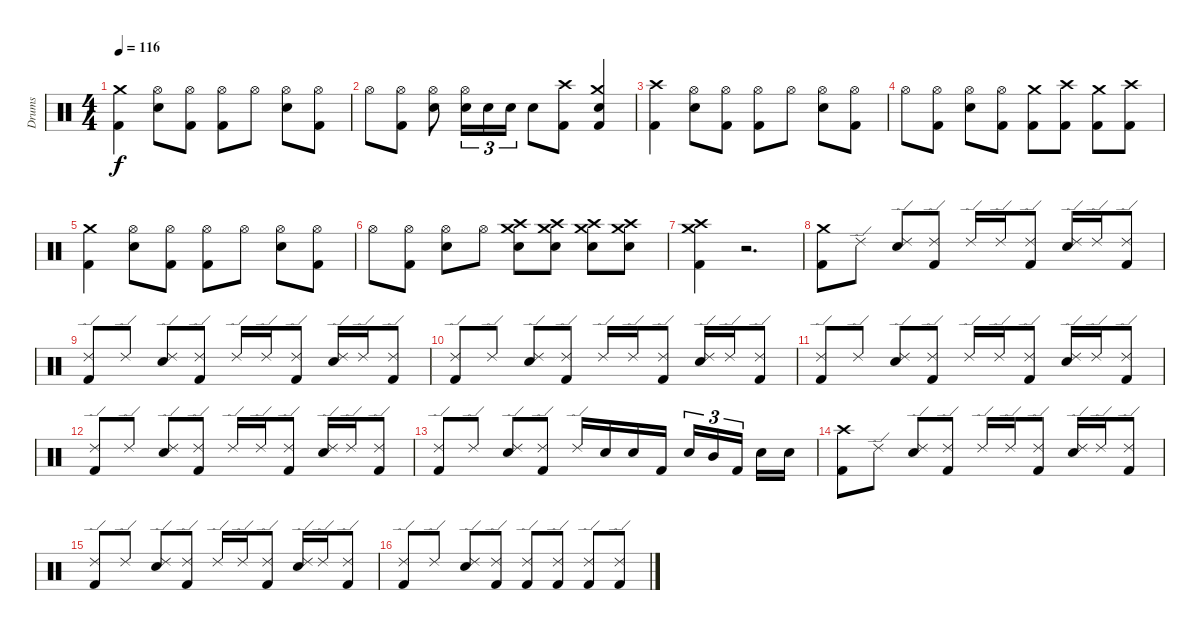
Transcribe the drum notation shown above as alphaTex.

\track ("Drums" "Drums") {instrument percussion}
\staff {score}
\articulation defaults
\ts (4 4)
\tempo 116
\clef neutral
\ks c
("Kick (hit) 2" "Crash medium (hit)").4{dy f} ("Electric Snare (hit)" "Hi-Hat (open)").8 ("Kick (hit) 2" "Hi-Hat (open)").8 ("Kick (hit) 2" "Hi-Hat (open)").8 "Hi-Hat (open)".8 ("Electric Snare (hit)" "Hi-Hat (open)").8 ("Kick (hit) 2" "Hi-Hat (open)").8 |
"Hi-Hat (open)".8 ("Kick (hit) 2" "Hi-Hat (open)").8 ("Electric Snare (hit)" "Hi-Hat (open)").8 ("Electric Snare (hit)" "Hi-Hat (open)").16{tu (3 2)} "Electric Snare (hit)".16{tu (3 2)} "Electric Snare (hit)".16{tu (3 2)} "Electric Snare (hit)".8 ("Kick (hit) 2" "Crash high (hit)").8 ("Kick (hit) 2" "Electric Snare (hit)" "Crash medium (hit)").4 |
("Kick (hit) 2" "Crash high (hit)").4 ("Electric Snare (hit)" "Hi-Hat (open)").8 ("Kick (hit) 2" "Hi-Hat (open)").8 ("Kick (hit) 2" "Hi-Hat (open)").8 "Hi-Hat (open)".8 ("Electric Snare (hit)" "Hi-Hat (open)").8 ("Kick (hit) 2" "Hi-Hat (open)").8 |
"Hi-Hat (open)".8 ("Kick (hit) 2" "Hi-Hat (open)").8 ("Electric Snare (hit)" "Hi-Hat (open)").8 ("Kick (hit) 2" "Hi-Hat (open)").8 ("Kick (hit) 2" "Crash medium (hit)").8 ("Kick (hit) 2" "Crash high (hit)").8 ("Kick (hit) 2" "Crash medium (hit)").8 ("Kick (hit) 2" "Crash high (hit)").8 |
("Kick (hit) 2" "Crash medium (hit)").4 ("Electric Snare (hit)" "Hi-Hat (open)").8 ("Kick (hit) 2" "Hi-Hat (open)").8 ("Kick (hit) 2" "Hi-Hat (open)").8 "Hi-Hat (open)".8 ("Electric Snare (hit)" "Hi-Hat (open)").8 ("Kick (hit) 2" "Hi-Hat (open)").8 |
"Hi-Hat (open)".8 ("Kick (hit) 2" "Hi-Hat (open)").8 ("Electric Snare (hit)" "Hi-Hat (open)").8 "Hi-Hat (open)".8 ("Electric Snare (hit)" "Crash high (hit)" "Crash medium (hit)").8 ("Electric Snare (hit)" "Crash high (hit)" "Crash medium (hit)").8 ("Electric Snare (hit)" "Crash high (hit)" "Crash medium (hit)").8 ("Electric Snare (hit)" "Crash high (hit)" "Crash medium (hit)").8 |
("Kick (hit) 2" "Crash high (hit)" "Crash medium (hit)").4 r.2{d} |
("Kick (hit) 2" "Crash medium (hit)").8 "Ride (edge) 2".8 ("Electric Snare (hit)" "Ride (edge) 2").8 ("Kick (hit) 2" "Ride (edge) 2").8 "Ride (edge) 2".16 "Ride (edge) 2".16 ("Kick (hit) 2" "Ride (edge) 2").8 ("Electric Snare (hit)" "Ride (edge) 2").16 "Ride (edge) 2".16 ("Kick (hit) 2" "Ride (edge) 2").8 |
("Kick (hit) 2" "Ride (edge) 2").8 "Ride (edge) 2".8 ("Electric Snare (hit)" "Ride (edge) 2").8 ("Kick (hit) 2" "Ride (edge) 2").8 "Ride (edge) 2".16 "Ride (edge) 2".16 ("Kick (hit) 2" "Ride (edge) 2").8 ("Electric Snare (hit)" "Ride (edge) 2").16 "Ride (edge) 2".16 ("Kick (hit) 2" "Ride (edge) 2").8 |
("Kick (hit) 2" "Ride (edge) 2").8 "Ride (edge) 2".8 ("Electric Snare (hit)" "Ride (edge) 2").8 ("Kick (hit) 2" "Ride (edge) 2").8 "Ride (edge) 2".16 "Ride (edge) 2".16 ("Kick (hit) 2" "Ride (edge) 2").8 ("Electric Snare (hit)" "Ride (edge) 2").16 "Ride (edge) 2".16 ("Kick (hit) 2" "Ride (edge) 2").8 |
("Kick (hit) 2" "Ride (edge) 2").8 "Ride (edge) 2".8 ("Electric Snare (hit)" "Ride (edge) 2").8 ("Kick (hit) 2" "Ride (edge) 2").8 "Ride (edge) 2".16 "Ride (edge) 2".16 ("Kick (hit) 2" "Ride (edge) 2").8 ("Electric Snare (hit)" "Ride (edge) 2").16 "Ride (edge) 2".16 ("Kick (hit) 2" "Ride (edge) 2").8 |
("Kick (hit) 2" "Ride (edge) 2").8 "Ride (edge) 2".8 ("Electric Snare (hit)" "Ride (edge) 2").8 ("Kick (hit) 2" "Ride (edge) 2").8 "Ride (edge) 2".16 "Ride (edge) 2".16 ("Kick (hit) 2" "Ride (edge) 2").8 ("Electric Snare (hit)" "Ride (edge) 2").16 "Ride (edge) 2".16 ("Kick (hit) 2" "Ride (edge) 2").8 |
("Kick (hit) 2" "Ride (edge) 2").8 "Ride (edge) 2".8 ("Electric Snare (hit)" "Ride (edge) 2").8 ("Kick (hit) 2" "Ride (edge) 2").8 "Ride (edge) 2".16 "Electric Snare (hit)".16 "Electric Snare (hit)".16 "Kick (hit) 2".16 "Electric Snare (hit)".16{tu (3 2)} "Mid Tom (hit)".16{tu (3 2)} "Kick (hit) 2".16{tu (3 2)} "Electric Snare (hit)".16 "Electric Snare (hit)".16 |
("Kick (hit) 2" "Crash high (hit)").8 "Ride (edge) 2".8 ("Electric Snare (hit)" "Ride (edge) 2").8 ("Kick (hit) 2" "Ride (edge) 2").8 "Ride (edge) 2".16 "Ride (edge) 2".16 ("Kick (hit) 2" "Ride (edge) 2").8 ("Electric Snare (hit)" "Ride (edge) 2").16 "Ride (edge) 2".16 ("Kick (hit) 2" "Ride (edge) 2").8 |
("Kick (hit) 2" "Ride (edge) 2").8 "Ride (edge) 2".8 ("Electric Snare (hit)" "Ride (edge) 2").8 ("Kick (hit) 2" "Ride (edge) 2").8 "Ride (edge) 2".16 "Ride (edge) 2".16 ("Kick (hit) 2" "Ride (edge) 2").8 ("Electric Snare (hit)" "Ride (edge) 2").16 "Ride (edge) 2".16 ("Kick (hit) 2" "Ride (edge) 2").8 |
("Kick (hit) 2" "Ride (edge) 2").8 "Ride (edge) 2".8 ("Electric Snare (hit)" "Ride (edge) 2").8 ("Kick (hit) 2" "Ride (edge) 2").8 ("Kick (hit) 2" "Ride (edge) 2").8 ("Kick (hit) 2" "Ride (edge) 2").8 ("Kick (hit) 2" "Ride (edge) 2").8 ("Kick (hit) 2" "Ride (edge) 2").8
